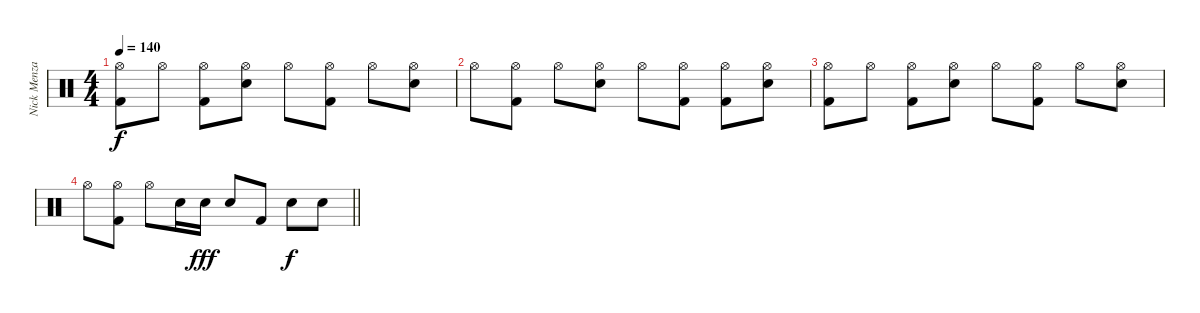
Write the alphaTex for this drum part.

\track ("Nick Menza" "Nick Menza") {instrument percussion}
\staff {score}
\articulation defaults
\ts (4 4)
\tempo 140
\clef neutral
\ks c
("Hi-Hat (open)" "Kick (hit) 2").8{dy f} "Hi-Hat (open)".8{volume 0} ("Hi-Hat (open)" "Kick (hit) 2").8 ("Hi-Hat (open)" "Snare (hit) 2").8 "Hi-Hat (open)".8 ("Hi-Hat (open)" "Kick (hit) 2").8 "Hi-Hat (open)".8 ("Hi-Hat (open)" "Snare (hit) 2").8 |
"Hi-Hat (open)".8 ("Hi-Hat (open)" "Kick (hit) 2").8 "Hi-Hat (open)".8 ("Hi-Hat (open)" "Snare (hit) 2").8 "Hi-Hat (open)".8 ("Hi-Hat (open)" "Kick (hit) 2").8 ("Hi-Hat (open)" "Kick (hit) 2").8 ("Hi-Hat (open)" "Snare (hit) 2").8 |
("Hi-Hat (open)" "Kick (hit) 2").8 "Hi-Hat (open)".8 ("Hi-Hat (open)" "Kick (hit) 2").8 ("Hi-Hat (open)" "Snare (hit) 2").8 "Hi-Hat (open)".8 ("Hi-Hat (open)" "Kick (hit) 2").8 "Hi-Hat (open)".8 ("Hi-Hat (open)" "Snare (hit) 2").8 |
\barLineRight lightlight "Hi-Hat (open)".8
("Hi-Hat (open)" "Kick (hit) 2").8 "Hi-Hat (open)".8 "Snare (hit) 2".16 "Snare (hit) 2".16{dy fff} "Snare (hit) 2".8 "Kick (hit) 2".8 "Snare (hit) 2".8{dy f} "Snare (hit) 2".8
